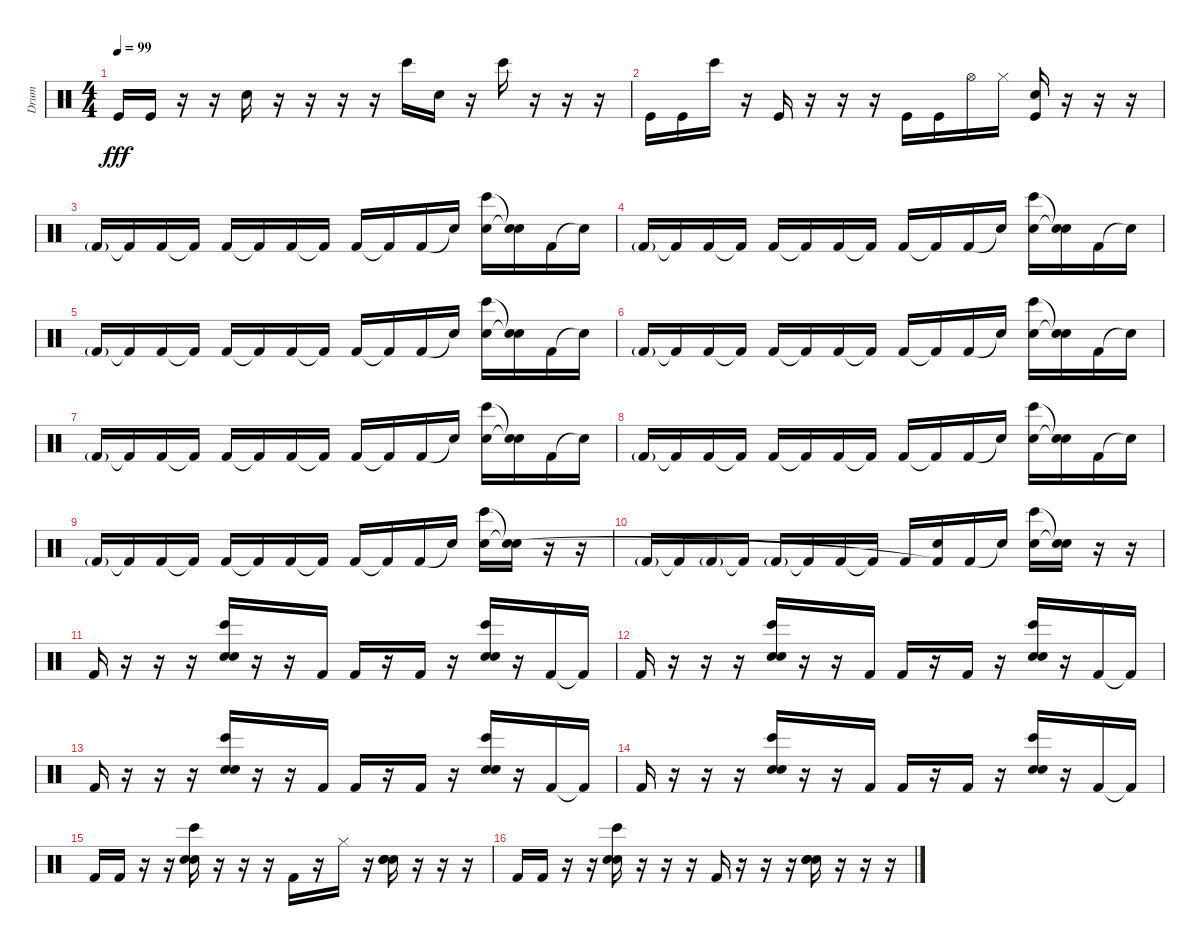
\track ("Drum" "Drum") {instrument percussion}
\staff {score}
\articulation defaults
\ts (4 4)
\tempo 99
\clef neutral
\ks c "Kick (hit)".16{dy fff} "Kick (hit)".16
r.16 r.16 "Hand Clap (hit)".16 r.16 r.16 r.16 r.16 "Bongo High (hit)".16 "Hand Clap (hit)".16 r.16 "Bongo High (hit)".16 r.16 r.16 r.16 |
"Kick (hit)".16 "Kick (hit)".16 "Bongo High (hit)".16 r.16 "Kick (hit)".16 r.16 r.16 r.16 "Kick (hit)".16 "Kick (hit)".16 "Hi-Hat (open)".16 "Hi-Hat (closed)".16 ("Hand Clap (hit)" "Kick (hit)").16 r.16 r.16 r.16 |
"Kick (hit) 2"{g}.16 "Kick (hit) 2"{t}.16 "Kick (hit) 2".16 "Kick (hit) 2"{t}.16 "Kick (hit) 2".16 "Kick (hit) 2"{t}.16 "Kick (hit) 2".16 "Kick (hit) 2"{t}.16 "Kick (hit) 2".16 "Kick (hit) 2"{t}.16 "Kick (hit) 2".16 "Snare (hit)"{t}.16 ("Bongo High (hit)" "Hand Clap (hit)").16 ("Snare (hit)"{t} "Snare (hit)"{t}).16 "Kick (hit) 2".16 "Snare (hit)"{t}.16 |
"Kick (hit) 2"{g}.16 "Kick (hit) 2"{t}.16 "Kick (hit) 2".16 "Kick (hit) 2"{t}.16 "Kick (hit) 2".16 "Kick (hit) 2"{t}.16 "Kick (hit) 2".16 "Kick (hit) 2"{t}.16 "Kick (hit) 2".16 "Kick (hit) 2"{t}.16 "Kick (hit) 2".16 "Snare (hit)"{t}.16 ("Bongo High (hit)" "Hand Clap (hit)").16 ("Snare (hit)"{t} "Snare (hit)"{t}).16 "Kick (hit) 2".16 "Snare (hit)"{t}.16 |
"Kick (hit) 2"{g}.16 "Kick (hit) 2"{t}.16 "Kick (hit) 2".16 "Kick (hit) 2"{t}.16 "Kick (hit) 2".16 "Kick (hit) 2"{t}.16 "Kick (hit) 2".16 "Kick (hit) 2"{t}.16 "Kick (hit) 2".16 "Kick (hit) 2"{t}.16 "Kick (hit) 2".16 "Snare (hit)"{t}.16 ("Bongo High (hit)" "Hand Clap (hit)").16 ("Snare (hit)"{t} "Snare (hit)"{t}).16 "Kick (hit) 2".16 "Snare (hit)"{t}.16 |
"Kick (hit) 2"{g}.16 "Kick (hit) 2"{t}.16 "Kick (hit) 2".16 "Kick (hit) 2"{t}.16 "Kick (hit) 2".16 "Kick (hit) 2"{t}.16 "Kick (hit) 2".16 "Kick (hit) 2"{t}.16 "Kick (hit) 2".16 "Kick (hit) 2"{t}.16 "Kick (hit) 2".16 "Snare (hit)"{t}.16 ("Bongo High (hit)" "Hand Clap (hit)").16 ("Snare (hit)"{t} "Snare (hit)"{t}).16 "Kick (hit) 2".16 "Snare (hit)"{t}.16 |
"Kick (hit) 2"{g}.16 "Kick (hit) 2"{t}.16 "Kick (hit) 2".16 "Kick (hit) 2"{t}.16 "Kick (hit) 2".16 "Kick (hit) 2"{t}.16 "Kick (hit) 2".16 "Kick (hit) 2"{t}.16 "Kick (hit) 2".16 "Kick (hit) 2"{t}.16 "Kick (hit) 2".16 "Snare (hit)"{t}.16 ("Bongo High (hit)" "Hand Clap (hit)").16 ("Snare (hit)"{t} "Snare (hit)"{t}).16 "Kick (hit) 2".16 "Snare (hit)"{t}.16 |
"Kick (hit) 2"{g}.16 "Kick (hit) 2"{t}.16 "Kick (hit) 2".16 "Kick (hit) 2"{t}.16 "Kick (hit) 2".16 "Kick (hit) 2"{t}.16 "Kick (hit) 2".16 "Kick (hit) 2"{t}.16 "Kick (hit) 2".16 "Kick (hit) 2"{t}.16 "Kick (hit) 2".16 "Snare (hit)"{t}.16 ("Bongo High (hit)" "Hand Clap (hit)").16 ("Snare (hit)"{t} "Snare (hit)"{t}).16 "Kick (hit) 2".16 "Snare (hit)"{t}.16 |
"Kick (hit) 2"{g}.16 "Kick (hit) 2"{t}.16 "Kick (hit) 2".16 "Kick (hit) 2"{t}.16 "Kick (hit) 2".16 "Kick (hit) 2"{t}.16 "Kick (hit) 2".16 "Kick (hit) 2"{t}.16 "Kick (hit) 2".16 "Kick (hit) 2"{t}.16 "Kick (hit) 2".16 "Snare (hit)"{t}.16 ("Bongo High (hit)" "Hand Clap (hit)").16 ("Snare (hit)"{t} "Snare (hit)"{t}).16 r.16 r.16 |
"Kick (hit) 2"{g}.16 "Kick (hit) 2"{t}.16 "Kick (hit) 2"{g}.16 "Kick (hit) 2"{t}.16 "Kick (hit) 2"{g}.16 "Kick (hit) 2"{t}.16 "Kick (hit) 2".16 "Kick (hit) 2"{t}.16 "Kick (hit) 2".16 ("Hand Clap (hit)" "Kick (hit) 2"{t}).16 "Kick (hit) 2".16 "Snare (hit)"{t}.16 ("Bongo High (hit)" "Hand Clap (hit)").16 ("Snare (hit)"{t} "Snare (hit)"{t}).16 r.16 r.16 |
"Kick (hit) 2".16 r.16 r.16 r.16 ("Snare (hit) 2" "Hand Clap (hit)" "Bongo High (hit)").16 r.16 r.16 "Kick (hit) 2".16 "Kick (hit) 2".16 r.16 "Kick (hit) 2".16 r.16 ("Snare (hit) 2" "Hand Clap (hit)" "Bongo High (hit)").16 r.16 "Kick (hit) 2".16 "Kick (hit) 2"{t}.16 |
"Kick (hit) 2".16 r.16 r.16 r.16 ("Snare (hit) 2" "Hand Clap (hit)" "Bongo High (hit)").16 r.16 r.16 "Kick (hit) 2".16 "Kick (hit) 2".16 r.16 "Kick (hit) 2".16 r.16 ("Snare (hit) 2" "Hand Clap (hit)" "Bongo High (hit)").16 r.16 "Kick (hit) 2".16 "Kick (hit) 2"{t}.16 |
"Kick (hit) 2".16 r.16 r.16 r.16 ("Snare (hit) 2" "Hand Clap (hit)" "Bongo High (hit)").16 r.16 r.16 "Kick (hit) 2".16 "Kick (hit) 2".16 r.16 "Kick (hit) 2".16 r.16 ("Snare (hit) 2" "Hand Clap (hit)" "Bongo High (hit)").16 r.16 "Kick (hit) 2".16 "Kick (hit) 2"{t}.16 |
"Kick (hit) 2".16 r.16 r.16 r.16 ("Snare (hit) 2" "Hand Clap (hit)" "Bongo High (hit)").16 r.16 r.16 "Kick (hit) 2".16 "Kick (hit) 2".16 r.16 "Kick (hit) 2".16 r.16 ("Snare (hit) 2" "Hand Clap (hit)" "Bongo High (hit)").16 r.16 "Kick (hit) 2".16 "Kick (hit) 2"{t}.16 |
"Kick (hit) 2".16 "Kick (hit) 2".16 r.16 r.16 ("Electric Snare (hit)" "Bongo High (hit)" "Hand Clap (hit)").16 r.16 r.16 r.16 "Kick (hit) 2".16 r.16 "Hi-Hat (closed)".16 r.16 ("Electric Snare (hit)" "Hand Clap (hit)" "Hand Clap (hit)").16 r.16 r.16 r.16 |
"Kick (hit) 2".16 "Kick (hit) 2".16 r.16 r.16 ("Electric Snare (hit)" "Bongo High (hit)" "Hand Clap (hit)").16 r.16 r.16 r.16 "Kick (hit) 2".16 r.16 r.16 r.16 ("Electric Snare (hit)" "Hand Clap (hit)" "Hand Clap (hit)").16 r.16 r.16 r.16
